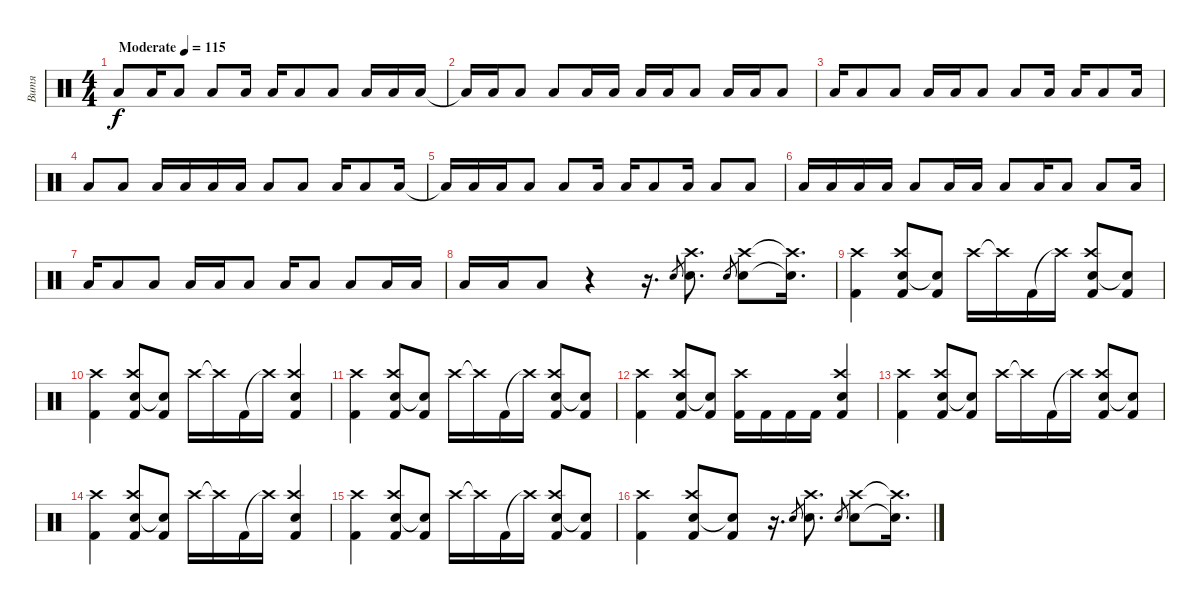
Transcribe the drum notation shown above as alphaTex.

\track ("Витя" "Витя") {instrument percussion}
\staff {score}
\articulation defaults
\ts (4 4)
\tempo (115 "Moderate")
\clef neutral
\ks c "Low Floor Tom (hit)".8{dy f volume 12} "Low Floor Tom (hit)".16 "Low Floor Tom (hit)".8 "Low Floor Tom (hit)".8 "Low Floor Tom (hit)".16 "Low Floor Tom (hit)".16 "Low Floor Tom (hit)".8 "Low Floor Tom (hit)".8 "Low Floor Tom (hit)".16 "Low Floor Tom (hit)".16 "Low Floor Tom (hit)".16
|
"Low Floor Tom (hit)"{t}.16 "Low Floor Tom (hit)".16 "Low Floor Tom (hit)".8 "Low Floor Tom (hit)".8 "Low Floor Tom (hit)".16 "Low Floor Tom (hit)".16 "Low Floor Tom (hit)".16 "Low Floor Tom (hit)".16 "Low Floor Tom (hit)".8 "Low Floor Tom (hit)".16 "Low Floor Tom (hit)".16 "Low Floor Tom (hit)".8 |
"Low Floor Tom (hit)".16 "Low Floor Tom (hit)".8 "Low Floor Tom (hit)".8 "Low Floor Tom (hit)".16 "Low Floor Tom (hit)".16 "Low Floor Tom (hit)".8 "Low Floor Tom (hit)".8 "Low Floor Tom (hit)".16 "Low Floor Tom (hit)".16 "Low Floor Tom (hit)".8 "Low Floor Tom (hit)".16 |
"Low Floor Tom (hit)".8 "Low Floor Tom (hit)".8 "Low Floor Tom (hit)".16 "Low Floor Tom (hit)".16 "Low Floor Tom (hit)".16 "Low Floor Tom (hit)".16 "Low Floor Tom (hit)".8 "Low Floor Tom (hit)".8 "Low Floor Tom (hit)".16 "Low Floor Tom (hit)".8 "Low Floor Tom (hit)".16 |
"Low Floor Tom (hit)"{t}.16 "Low Floor Tom (hit)".16 "Low Floor Tom (hit)".16 "Low Floor Tom (hit)".8 "Low Floor Tom (hit)".8 "Low Floor Tom (hit)".16 "Low Floor Tom (hit)".16 "Low Floor Tom (hit)".8 "Low Floor Tom (hit)".16 "Low Floor Tom (hit)".8 "Low Floor Tom (hit)".8 |
"Low Floor Tom (hit)".16 "Low Floor Tom (hit)".16 "Low Floor Tom (hit)".16 "Low Floor Tom (hit)".16 "Low Floor Tom (hit)".8 "Low Floor Tom (hit)".16 "Low Floor Tom (hit)".16 "Low Floor Tom (hit)".8 "Low Floor Tom (hit)".16 "Low Floor Tom (hit)".8 "Low Floor Tom (hit)".8 "Low Floor Tom (hit)".16 |
"Low Floor Tom (hit)".16 "Low Floor Tom (hit)".8 "Low Floor Tom (hit)".8 "Low Floor Tom (hit)".16 "Low Floor Tom (hit)".16 "Low Floor Tom (hit)".8 "Low Floor Tom (hit)".16 "Low Floor Tom (hit)".8 "Low Floor Tom (hit)".8 "Low Floor Tom (hit)".16 "Low Floor Tom (hit)".16 |
"Low Floor Tom (hit)".16 "Low Floor Tom (hit)".16 "Low Floor Tom (hit)".8 r.4 r.16{d} "Electric Snare (hit)".8{gr} ("Crash high (hit)" "Electric Snare (hit)").8{d} "Electric Snare (hit)".8{gr} ("Crash high (hit)" "Electric Snare (hit)").8 ("Crash high (hit)"{t} "Electric Snare (hit)"{t}).16{d} |
("Crash high (hit)" "Kick (hit) 2").4 ("Crash high (hit)" "Electric Snare (hit)" "Kick (hit) 2").8 ("Kick (hit) 2" "Electric Snare (hit)"{t}).8 "Crash high (hit)".16 "Crash high (hit)"{t}.16 "Kick (hit) 2".16 "Crash high (hit)"{t}.16 ("Crash high (hit)" "Electric Snare (hit)" "Kick (hit) 2").8 ("Kick (hit) 2" "Electric Snare (hit)"{t}).8 |
("Crash high (hit)" "Kick (hit) 2").4 ("Crash high (hit)" "Electric Snare (hit)" "Kick (hit) 2").8 ("Kick (hit) 2" "Electric Snare (hit)"{t}).8 "Crash high (hit)".16 "Crash high (hit)"{t}.16 "Kick (hit) 2".16 "Crash high (hit)"{t}.16 ("Crash high (hit)" "Electric Snare (hit)" "Kick (hit) 2").4 |
("Crash high (hit)" "Kick (hit) 2").4 ("Crash high (hit)" "Electric Snare (hit)" "Kick (hit) 2").8 ("Kick (hit) 2" "Electric Snare (hit)"{t}).8 "Crash high (hit)".16 "Crash high (hit)"{t}.16 "Kick (hit) 2".16 "Crash high (hit)"{t}.16 ("Crash high (hit)" "Electric Snare (hit)" "Kick (hit) 2").8 ("Kick (hit) 2" "Electric Snare (hit)"{t}).8 |
("Crash high (hit)" "Kick (hit) 2").4 ("Crash high (hit)" "Electric Snare (hit)" "Kick (hit) 2").8 ("Kick (hit) 2" "Electric Snare (hit)"{t}).8 ("Crash high (hit)" "Kick (hit) 2").16 "Kick (hit) 2".16 "Kick (hit) 2".16 "Kick (hit) 2".16 ("Crash high (hit)" "Electric Snare (hit)" "Kick (hit) 2").4 |
("Crash high (hit)" "Kick (hit) 2").4 ("Crash high (hit)" "Electric Snare (hit)" "Kick (hit) 2").8 ("Kick (hit) 2" "Electric Snare (hit)"{t}).8 "Crash high (hit)".16 "Crash high (hit)"{t}.16 "Kick (hit) 2".16 "Crash high (hit)"{t}.16 ("Crash high (hit)" "Electric Snare (hit)" "Kick (hit) 2").8 ("Kick (hit) 2" "Electric Snare (hit)"{t}).8 |
("Crash high (hit)" "Kick (hit) 2").4 ("Crash high (hit)" "Electric Snare (hit)" "Kick (hit) 2").8 ("Kick (hit) 2" "Electric Snare (hit)"{t}).8 "Crash high (hit)".16 "Crash high (hit)"{t}.16 "Kick (hit) 2".16 "Crash high (hit)"{t}.16 ("Crash high (hit)" "Electric Snare (hit)" "Kick (hit) 2").4 |
("Crash high (hit)" "Kick (hit) 2").4 ("Crash high (hit)" "Electric Snare (hit)" "Kick (hit) 2").8 ("Kick (hit) 2" "Electric Snare (hit)"{t}).8 "Crash high (hit)".16 "Crash high (hit)"{t}.16 "Kick (hit) 2".16 "Crash high (hit)"{t}.16 ("Crash high (hit)" "Electric Snare (hit)" "Kick (hit) 2").8 ("Kick (hit) 2" "Electric Snare (hit)"{t}).8 |
("Crash high (hit)" "Kick (hit) 2").4 ("Crash high (hit)" "Electric Snare (hit)" "Kick (hit) 2").8 ("Kick (hit) 2" "Electric Snare (hit)"{t}).8 r.16{d} "Electric Snare (hit)".8{gr} ("Crash high (hit)" "Electric Snare (hit)").8{d} "Electric Snare (hit)".8{gr} ("Crash high (hit)" "Electric Snare (hit)").8 ("Crash high (hit)"{t} "Electric Snare (hit)"{t}).16{d}
